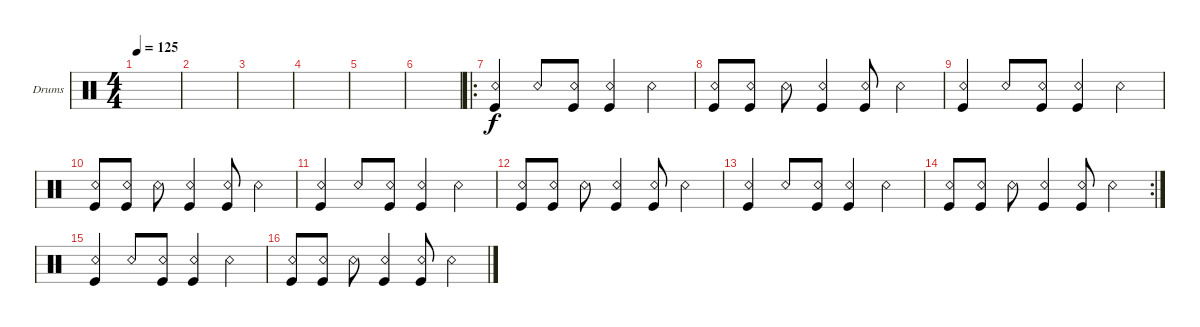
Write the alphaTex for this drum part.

\defaultSystemsLayout 4
\bracketExtendMode groupsimilarinstruments
\firstSystemTrackNameOrientation horizontal
\otherSystemsTrackNameOrientation horizontal
\track ("Drumkit" "Drums") {instrument percussion}
\staff {score}
\articulation defaults
\ts (4 4)
\tempo 125
\clef neutral
\scale
0.333333
\ks c
|
\scale
0.333333 |
\scale
0.333333 |
\scale
0.333333 |
\scale
0.333333 |
\scale
0.311475 |
\ro
\scale
0.377049 ("Kick (hit)" "Snare (rim shot)").4 "Snare (rim shot)".8 ("Kick (hit)" "Snare (rim shot)").8 ("Kick (hit)" "Snare (rim shot)").4 "Snare (rim shot)".4 |
\scale
0.311475 ("Snare (rim shot)" "Kick (hit)").8 ("Snare (rim shot)" "Kick (hit)").8 "Snare (rim shot)".8 ("Snare (rim shot)" "Kick (hit)").4 ("Snare (rim shot)" "Kick (hit)").8 "Snare (rim shot)".4 |
\scale
0.333333 ("Kick (hit)" "Snare (rim shot)").4 "Snare (rim shot)".8 ("Kick (hit)" "Snare (rim shot)").8 ("Kick (hit)" "Snare (rim shot)").4 "Snare (rim shot)".4 |
\scale
0.333333 ("Snare (rim shot)" "Kick (hit)").8 ("Snare (rim shot)" "Kick (hit)").8 "Snare (rim shot)".8 ("Snare (rim shot)" "Kick (hit)").4 ("Snare (rim shot)" "Kick (hit)").8 "Snare (rim shot)".4 |
\scale
0.333333 ("Kick (hit)" "Snare (rim shot)").4 "Snare (rim shot)".8 ("Kick (hit)" "Snare (rim shot)").8 ("Kick (hit)" "Snare (rim shot)").4 "Snare (rim shot)".4 |
\scale
0.322034 ("Snare (rim shot)" "Kick (hit)").8 ("Snare (rim shot)" "Kick (hit)").8 "Snare (rim shot)".8 ("Snare (rim shot)" "Kick (hit)").4 ("Snare (rim shot)" "Kick (hit)").8 "Snare (rim shot)".4 |
\scale
0.322034 ("Kick (hit)" "Snare (rim shot)").4 "Snare (rim shot)".8 ("Kick (hit)" "Snare (rim shot)").8 ("Kick (hit)" "Snare (rim shot)").4 "Snare (rim shot)".4 |
\rc 2
\scale
0.355932 ("Snare (rim shot)" "Kick (hit)").8 ("Snare (rim shot)" "Kick (hit)").8 "Snare (rim shot)".8 ("Snare (rim shot)" "Kick (hit)").4 ("Snare (rim shot)" "Kick (hit)").8 "Snare (rim shot)".4 |
\scale
0.333333 ("Kick (hit)" "Snare (rim shot)").4 "Snare (rim shot)".8 ("Kick (hit)" "Snare (rim shot)").8 ("Kick (hit)" "Snare (rim shot)").4 "Snare (rim shot)".4 |
\scale
0.333333 ("Snare (rim shot)" "Kick (hit)").8 ("Snare (rim shot)" "Kick (hit)").8 "Snare (rim shot)".8 ("Snare (rim shot)" "Kick (hit)").4 ("Snare (rim shot)" "Kick (hit)").8 "Snare (rim shot)".4
